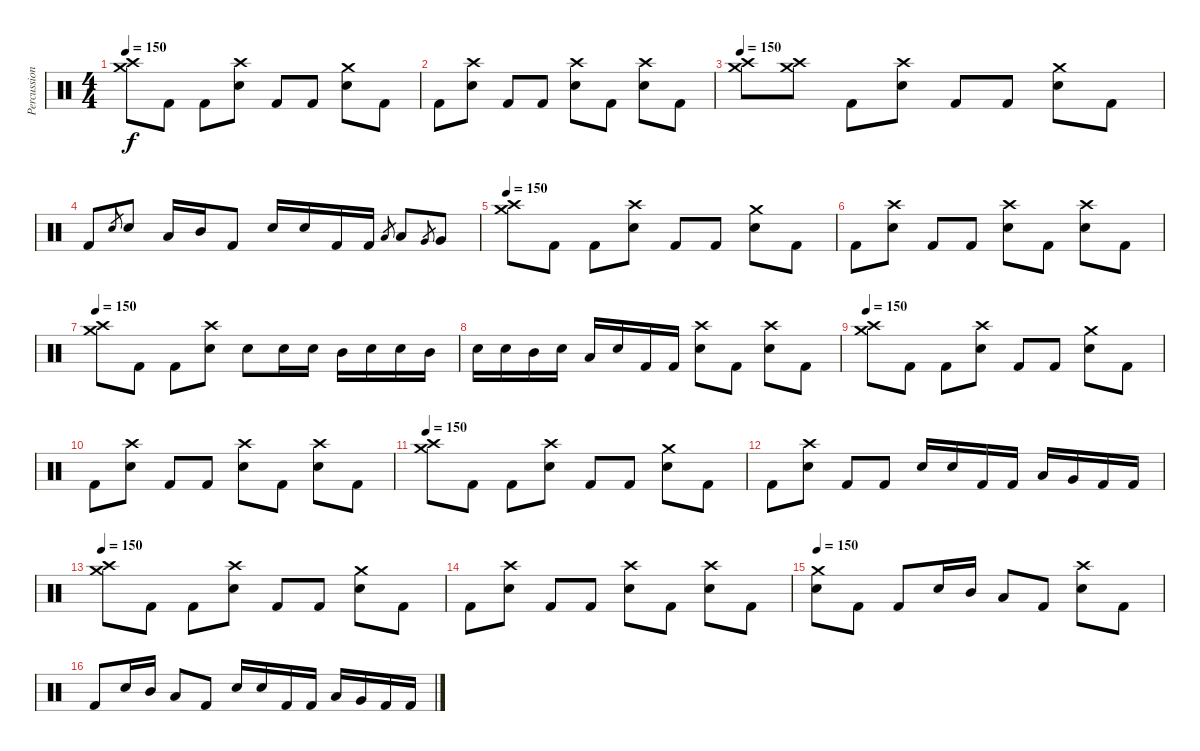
\track ("Percussion" "Percussion") {instrument percussion}
\staff {score}
\articulation defaults
\ts (4 4)
\tempo 150
\clef neutral
\ks c
("Crash medium (hit)" "Crash high (hit)").8{dy f} "Kick (hit) 2".8 "Kick (hit) 2".8 ("Crash high (hit)" "Snare (hit) 2").8 "Kick (hit) 2".8 "Kick (hit) 2".8 ("Crash medium (hit)" "Snare (hit) 2").8 "Kick (hit) 2".8 |
"Kick (hit) 2".8 ("Crash high (hit)" "Snare (hit) 2").8 "Kick (hit) 2".8 "Kick (hit) 2".8 ("Crash high (hit)" "Snare (hit) 2").8 "Kick (hit) 2".8 ("Crash high (hit)" "Snare (hit) 2").8 "Kick (hit) 2".8 |
\tempo 150
("Crash medium (hit)" "Crash high (hit)").8 ("Crash medium (hit)" "Crash high (hit)").8 "Kick (hit) 2".8 ("Crash high (hit)" "Snare (hit) 2").8 "Kick (hit) 2".8 "Kick (hit) 2".8 ("Crash medium (hit)" "Snare (hit) 2").8 "Kick (hit) 2".8 |
"Kick (hit) 2".8 "Snare (hit) 2".8{gr} "Snare (hit) 2".8 "Low Tom (hit)".16 "Mid Tom (hit)".16 "Kick (hit) 2".8 "Snare (hit) 2".16 "Snare (hit) 2".16 "Kick (hit) 2".16 "Kick (hit) 2".16 "Low Tom (hit)".8{gr} "Low Tom (hit)".8 "Very Low Tom (hit)".8{gr} "Very Low Tom (hit)".8 |
\tempo 150
("Crash medium (hit)" "Crash high (hit)").8 "Kick (hit) 2".8 "Kick (hit) 2".8 ("Crash high (hit)" "Snare (hit) 2").8 "Kick (hit) 2".8 "Kick (hit) 2".8 ("Crash medium (hit)" "Snare (hit) 2").8 "Kick (hit) 2".8 |
"Kick (hit) 2".8 ("Crash high (hit)" "Snare (hit) 2").8 "Kick (hit) 2".8 "Kick (hit) 2".8 ("Crash high (hit)" "Snare (hit) 2").8 "Kick (hit) 2".8 ("Crash high (hit)" "Snare (hit) 2").8 "Kick (hit) 2".8 |
\tempo 150
("Crash medium (hit)" "Crash high (hit)").8 "Kick (hit) 2".8 "Kick (hit) 2".8 ("Crash high (hit)" "Snare (hit) 2").8 "Snare (hit) 2".8 "Snare (hit) 2".16 "Snare (hit) 2".16 "Mid Tom (hit)".16 "Snare (hit) 2".16 "Snare (hit) 2".16 "Mid Tom (hit)".16 |
"Snare (hit) 2".16 "Snare (hit) 2".16 "Mid Tom (hit)".16 "Snare (hit) 2".16 "Low Tom (hit)".16 "Snare (hit) 2".16 "Kick (hit) 2".16 "Kick (hit) 2".16 ("Crash high (hit)" "Snare (hit) 2").8 "Kick (hit) 2".8 ("Crash high (hit)" "Snare (hit) 2").8 "Kick (hit) 2".8 |
\tempo 150
("Crash medium (hit)" "Crash high (hit)").8 "Kick (hit) 2".8 "Kick (hit) 2".8 ("Crash high (hit)" "Snare (hit) 2").8 "Kick (hit) 2".8 "Kick (hit) 2".8 ("Crash medium (hit)" "Snare (hit) 2").8 "Kick (hit) 2".8 |
"Kick (hit) 2".8 ("Crash high (hit)" "Snare (hit) 2").8 "Kick (hit) 2".8 "Kick (hit) 2".8 ("Crash high (hit)" "Snare (hit) 2").8 "Kick (hit) 2".8 ("Crash high (hit)" "Snare (hit) 2").8 "Kick (hit) 2".8 |
\tempo 150
("Crash medium (hit)" "Crash high (hit)").8 "Kick (hit) 2".8 "Kick (hit) 2".8 ("Crash high (hit)" "Snare (hit) 2").8 "Kick (hit) 2".8 "Kick (hit) 2".8 ("Crash medium (hit)" "Snare (hit) 2").8 "Kick (hit) 2".8 |
"Kick (hit) 2".8 ("Crash high (hit)" "Snare (hit) 2").8 "Kick (hit) 2".8 "Kick (hit) 2".8 "Snare (hit) 2".16 "Snare (hit) 2".16 "Kick (hit) 2".16 "Kick (hit) 2".16 "Low Tom (hit)".16 "Very Low Tom (hit)".16 "Kick (hit) 2".16 "Kick (hit) 2".16 |
\tempo 150
("Crash medium (hit)" "Crash high (hit)").8 "Kick (hit) 2".8 "Kick (hit) 2".8 ("Crash high (hit)" "Snare (hit) 2").8 "Kick (hit) 2".8 "Kick (hit) 2".8 ("Crash medium (hit)" "Snare (hit) 2").8 "Kick (hit) 2".8 |
"Kick (hit) 2".8 ("Crash high (hit)" "Snare (hit) 2").8 "Kick (hit) 2".8 "Kick (hit) 2".8 ("Crash high (hit)" "Snare (hit) 2").8 "Kick (hit) 2".8 ("Crash high (hit)" "Snare (hit) 2").8 "Kick (hit) 2".8 |
\tempo 150
("Crash medium (hit)" "Snare (hit) 2").8 "Kick (hit) 2".8 "Kick (hit) 2".8 "Snare (hit) 2".16 "Mid Tom (hit)".16 "Low Tom (hit)".8 "Kick (hit) 2".8 ("Crash high (hit)" "Snare (hit) 2").8 "Kick (hit) 2".8 |
"Kick (hit) 2".8 "Snare (hit) 2".16 "Mid Tom (hit)".16 "Low Tom (hit)".8 "Kick (hit) 2".8 "Snare (hit) 2".16 "Snare (hit) 2".16 "Kick (hit) 2".16 "Kick (hit) 2".16 "Low Tom (hit)".16 "Very Low Tom (hit)".16 "Kick (hit) 2".16 "Kick (hit) 2".16
